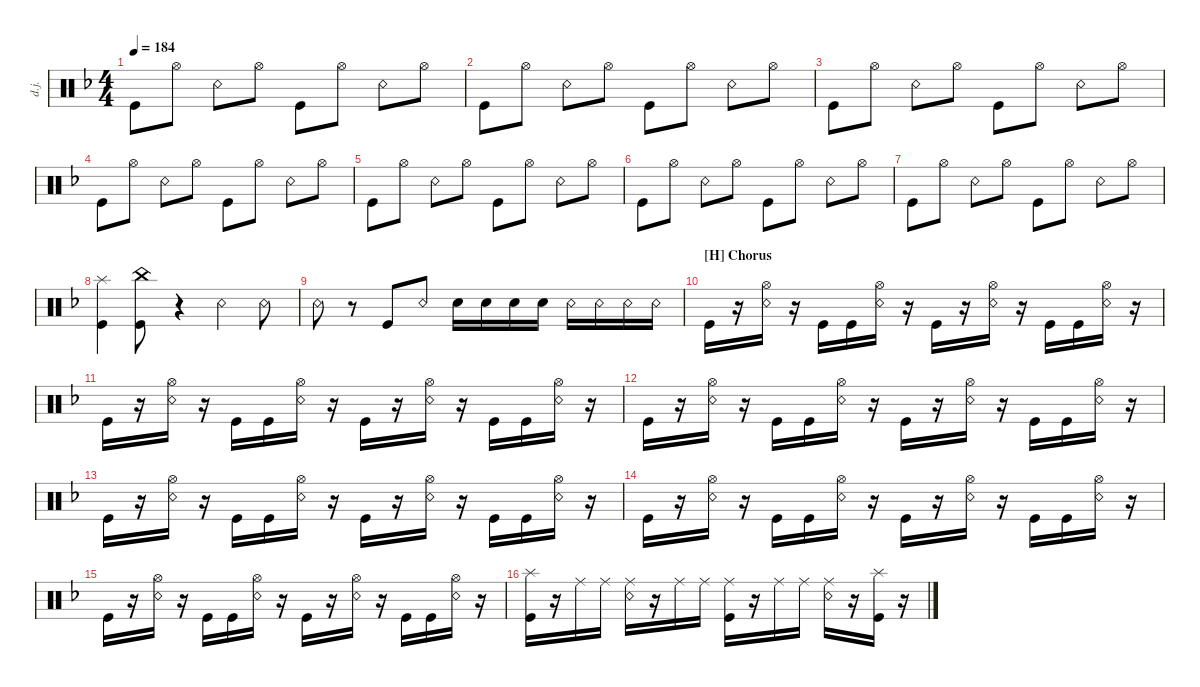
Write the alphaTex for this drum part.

\defaultSystemsLayout 4
\hideDynamics
\bracketExtendMode nobrackets
\otherSystemsTrackNameOrientation horizontal
\track ("Drumkit Jason" "d.j.") {instrument percussion}
\staff {score}
\articulation defaults
\ts (4 4)
\tempo 184
\clef neutral
\ks dminor "Kick (hit)".8{dy ff} "Hi-Hat (open)".8 "Snare (rim shot)".8 "Hi-Hat (open)".8 "Kick (hit)".8 "Hi-Hat (open)".8 "Snare (rim shot)".8 "Hi-Hat (open)".8
|
"Kick (hit)".8 "Hi-Hat (open)".8 "Snare (rim shot)".8 "Hi-Hat (open)".8 "Kick (hit)".8 "Hi-Hat (open)".8 "Snare (rim shot)".8 "Hi-Hat (open)".8 |
"Kick (hit)".8 "Hi-Hat (open)".8 "Snare (rim shot)".8 "Hi-Hat (open)".8 "Kick (hit)".8 "Hi-Hat (open)".8 "Snare (rim shot)".8 "Hi-Hat (open)".8 |
"Kick (hit)".8 "Hi-Hat (open)".8 "Snare (rim shot)".8 "Hi-Hat (open)".8 "Kick (hit)".8 "Hi-Hat (open)".8 "Snare (rim shot)".8 "Hi-Hat (open)".8 |
"Kick (hit)".8 "Hi-Hat (open)".8 "Snare (rim shot)".8 "Hi-Hat (open)".8 "Kick (hit)".8 "Hi-Hat (open)".8 "Snare (rim shot)".8 "Hi-Hat (open)".8 |
"Kick (hit)".8 "Hi-Hat (open)".8 "Snare (rim shot)".8 "Hi-Hat (open)".8 "Kick (hit)".8 "Hi-Hat (open)".8 "Snare (rim shot)".8 "Hi-Hat (open)".8 |
"Kick (hit)".8 "Hi-Hat (open)".8 "Snare (rim shot)".8 "Hi-Hat (open)".8 "Kick (hit)".8 "Hi-Hat (open)".8 "Snare (rim shot)".8 "Hi-Hat (open)".8 |
("Splash (hit)" "Kick (hit)").4 ("China (hit)" "Kick (hit)").8 r.4 "Snare (rim shot)".4 "Snare (rim shot)".8 |
"Snare (rim shot)".8 r.8 "Kick (hit)".8 "Snare (rim shot)".8 "Snare (hit) 2".16 "Snare (hit) 2".16 "Snare (hit) 2".16 "Snare (hit) 2".16 "Snare (rim shot)".16 "Snare (rim shot)".16 "Snare (rim shot)".16 "Snare (rim shot)".16 |
\section ("H" "Chorus")
"Kick (hit)".16 r.16 ("Snare (rim shot)" "Hi-Hat (open)").16 r.16 "Kick (hit)".16 "Kick (hit)".16 ("Snare (rim shot)" "Hi-Hat (open)").16 r.16 "Kick (hit)".16 r.16 ("Snare (rim shot)" "Hi-Hat (open)").16 r.16 "Kick (hit)".16 "Kick (hit)".16 ("Snare (rim shot)" "Hi-Hat (open)").16 r.16 |
"Kick (hit)".16 r.16 ("Snare (rim shot)" "Hi-Hat (open)").16 r.16 "Kick (hit)".16 "Kick (hit)".16 ("Snare (rim shot)" "Hi-Hat (open)").16 r.16 "Kick (hit)".16 r.16 ("Snare (rim shot)" "Hi-Hat (open)").16 r.16 "Kick (hit)".16 "Kick (hit)".16 ("Snare (rim shot)" "Hi-Hat (open)").16 r.16 |
"Kick (hit)".16 r.16 ("Snare (rim shot)" "Hi-Hat (open)").16 r.16 "Kick (hit)".16 "Kick (hit)".16 ("Snare (rim shot)" "Hi-Hat (open)").16 r.16 "Kick (hit)".16 r.16 ("Snare (rim shot)" "Hi-Hat (open)").16 r.16 "Kick (hit)".16 "Kick (hit)".16 ("Snare (rim shot)" "Hi-Hat (open)").16 r.16 |
"Kick (hit)".16 r.16 ("Snare (rim shot)" "Hi-Hat (open)").16 r.16 "Kick (hit)".16 "Kick (hit)".16 ("Snare (rim shot)" "Hi-Hat (open)").16 r.16 "Kick (hit)".16 r.16 ("Snare (rim shot)" "Hi-Hat (open)").16 r.16 "Kick (hit)".16 "Kick (hit)".16 ("Snare (rim shot)" "Hi-Hat (open)").16 r.16 |
"Kick (hit)".16 r.16 ("Snare (rim shot)" "Hi-Hat (open)").16 r.16 "Kick (hit)".16 "Kick (hit)".16 ("Snare (rim shot)" "Hi-Hat (open)").16 r.16 "Kick (hit)".16 r.16 ("Snare (rim shot)" "Hi-Hat (open)").16 r.16 "Kick (hit)".16 "Kick (hit)".16 ("Snare (rim shot)" "Hi-Hat (open)").16 r.16 |
"Kick (hit)".16 r.16 ("Snare (rim shot)" "Hi-Hat (open)").16 r.16 "Kick (hit)".16 "Kick (hit)".16 ("Snare (rim shot)" "Hi-Hat (open)").16 r.16 "Kick (hit)".16 r.16 ("Snare (rim shot)" "Hi-Hat (open)").16 r.16 "Kick (hit)".16 "Kick (hit)".16 ("Snare (rim shot)" "Hi-Hat (open)").16 r.16 |
("Splash (hit)" "Kick (hit)").16 r.16 "Ride (middle)".16 "Ride (middle)".16 ("Ride (middle)" "Snare (rim shot)").16 r.16 "Ride (middle)".16 "Ride (middle)".16 ("Ride (middle)" "Kick (hit)").16 r.16 "Ride (middle)".16 "Ride (middle)".16 ("Ride (middle)" "Snare (rim shot)").16 r.16 ("Splash (hit)" "Kick (hit)").16 r.16
